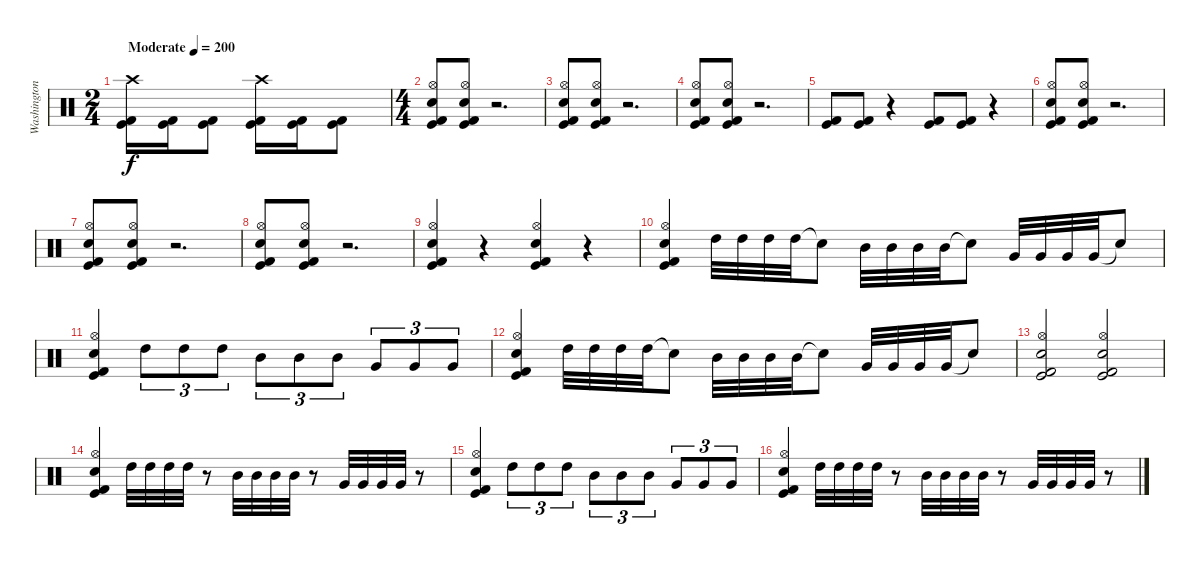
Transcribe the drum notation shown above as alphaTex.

\track ("Washington" "Washington") {solo instrument percussion}
\staff {score}
\articulation defaults
\ts (2 4)
\tempo (200 "Moderate")
\clef neutral
\ks c
("Crash high (hit)" "Kick (hit)" "Kick (hit) 2").16{dy f} ("Kick (hit)" "Kick (hit) 2").16 ("Kick (hit)" "Kick (hit) 2").8 ("Crash high (hit)" "Kick (hit)" "Kick (hit) 2").16 ("Kick (hit)" "Kick (hit) 2").16 ("Kick (hit)" "Kick (hit) 2").8 |
\ts (4 4)
("Hi-Hat (open)" "Snare (hit) 2" "Kick (hit)" "Kick (hit) 2").8 ("Hi-Hat (open)" "Snare (hit) 2" "Kick (hit)" "Kick (hit) 2").8 r.2{d} |
("Hi-Hat (open)" "Snare (hit) 2" "Kick (hit)" "Kick (hit) 2").8 ("Hi-Hat (open)" "Snare (hit) 2" "Kick (hit)" "Kick (hit) 2").8 r.2{d} |
("Hi-Hat (open)" "Snare (hit) 2" "Kick (hit)" "Kick (hit) 2").8 ("Hi-Hat (open)" "Snare (hit) 2" "Kick (hit)" "Kick (hit) 2").8 r.2{d} |
("Kick (hit)" "Kick (hit) 2").8 ("Kick (hit)" "Kick (hit) 2").8 r.4 ("Kick (hit)" "Kick (hit) 2").8 ("Kick (hit)" "Kick (hit) 2").8 r.4 |
("Hi-Hat (open)" "Snare (hit) 2" "Kick (hit)" "Kick (hit) 2").8 ("Hi-Hat (open)" "Snare (hit) 2" "Kick (hit)" "Kick (hit) 2").8 r.2{d} |
("Hi-Hat (open)" "Snare (hit) 2" "Kick (hit)" "Kick (hit) 2").8 ("Hi-Hat (open)" "Snare (hit) 2" "Kick (hit)" "Kick (hit) 2").8 r.2{d} |
("Hi-Hat (open)" "Snare (hit) 2" "Kick (hit)" "Kick (hit) 2").8 ("Hi-Hat (open)" "Snare (hit) 2" "Kick (hit)" "Kick (hit) 2").8 r.2{d} |
("Hi-Hat (open)" "Snare (hit) 2" "Kick (hit)" "Kick (hit) 2").4 r.4 ("Hi-Hat (open)" "Snare (hit) 2" "Kick (hit)" "Kick (hit) 2").4 r.4 |
("Hi-Hat (open)" "Snare (hit) 2" "Kick (hit)" "Kick (hit) 2").4 "High Tom (hit)".32 "High Tom (hit)".32 "High Tom (hit)".32 "High Tom (hit)".32 "Snare (hit)"{t}.8 "Mid Tom (hit)".32 "Mid Tom (hit)".32 "Mid Tom (hit)".32 "Mid Tom (hit)".32 "Snare (hit)"{t}.8 "Very Low Tom (hit)".32 "Very Low Tom (hit)".32 "Very Low Tom (hit)".32 "Very Low Tom (hit)".32 "Snare (hit)"{t}.8 |
("Hi-Hat (open)" "Snare (hit) 2" "Kick (hit)" "Kick (hit) 2").4 "High Tom (hit)".8{tu (3 2)} "High Tom (hit)".8{tu (3 2)} "High Tom (hit)".8{tu (3 2)} "Mid Tom (hit)".8{tu (3 2)} "Mid Tom (hit)".8{tu (3 2)} "Mid Tom (hit)".8{tu (3 2)} "Very Low Tom (hit)".8{tu (3 2)} "Very Low Tom (hit)".8{tu (3 2)} "Very Low Tom (hit)".8{tu (3 2)} |
("Hi-Hat (open)" "Snare (hit) 2" "Kick (hit)" "Kick (hit) 2").4 "High Tom (hit)".32 "High Tom (hit)".32 "High Tom (hit)".32 "High Tom (hit)".32 "Snare (hit)"{t}.8 "Mid Tom (hit)".32 "Mid Tom (hit)".32 "Mid Tom (hit)".32 "Mid Tom (hit)".32 "Snare (hit)"{t}.8 "Very Low Tom (hit)".32 "Very Low Tom (hit)".32 "Very Low Tom (hit)".32 "Very Low Tom (hit)".32 "Snare (hit)"{t}.8 |
("Hi-Hat (open)" "Snare (hit) 2" "Kick (hit)" "Kick (hit) 2").2 ("Hi-Hat (open)" "Snare (hit) 2" "Kick (hit)" "Kick (hit) 2").2 |
("Hi-Hat (open)" "Snare (hit) 2" "Kick (hit)" "Kick (hit) 2").4 "High Tom (hit)".32 "High Tom (hit)".32 "High Tom (hit)".32 "High Tom (hit)".32 r.8 "Mid Tom (hit)".32 "Mid Tom (hit)".32 "Mid Tom (hit)".32 "Mid Tom (hit)".32 r.8 "Very Low Tom (hit)".32 "Very Low Tom (hit)".32 "Very Low Tom (hit)".32 "Very Low Tom (hit)".32 r.8 |
("Hi-Hat (open)" "Snare (hit) 2" "Kick (hit)" "Kick (hit) 2").4 "High Tom (hit)".8{tu (3 2)} "High Tom (hit)".8{tu (3 2)} "High Tom (hit)".8{tu (3 2)} "Mid Tom (hit)".8{tu (3 2)} "Mid Tom (hit)".8{tu (3 2)} "Mid Tom (hit)".8{tu (3 2)} "Very Low Tom (hit)".8{tu (3 2)} "Very Low Tom (hit)".8{tu (3 2)} "Very Low Tom (hit)".8{tu (3 2)} |
("Hi-Hat (open)" "Snare (hit) 2" "Kick (hit)" "Kick (hit) 2").4 "High Tom (hit)".32 "High Tom (hit)".32 "High Tom (hit)".32 "High Tom (hit)".32 r.8 "Mid Tom (hit)".32 "Mid Tom (hit)".32 "Mid Tom (hit)".32 "Mid Tom (hit)".32 r.8 "Very Low Tom (hit)".32 "Very Low Tom (hit)".32 "Very Low Tom (hit)".32 "Very Low Tom (hit)".32 r.8
